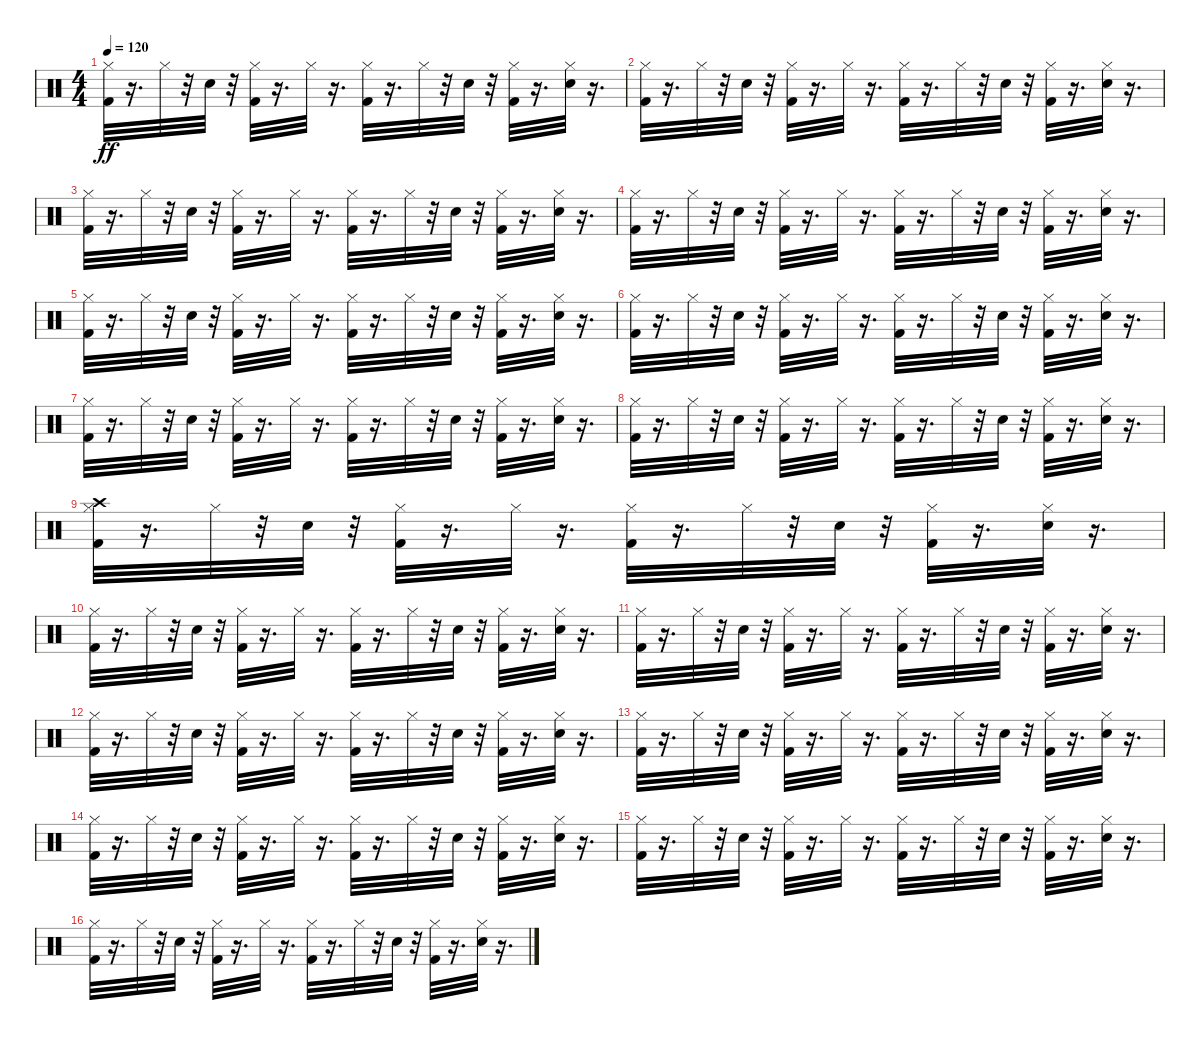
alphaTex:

\track "" {instrument percussion}
\staff {score}
\articulation defaults
\ts (4 4)
\tempo 120
\clef neutral
\ks c
("Kick (hit) 2" "Hi-Hat (closed)").32{dy ff} r.16{d} "Hi-Hat (closed)".32 r.32 "Snare (hit) 2".32 r.32 ("Kick (hit) 2" "Hi-Hat (closed)").32 r.16{d} "Hi-Hat (closed)".32 r.16{d} ("Kick (hit) 2" "Hi-Hat (closed)").32 r.16{d} "Hi-Hat (closed)".32 r.32 "Snare (hit) 2".32 r.32 ("Kick (hit) 2" "Hi-Hat (closed)").32 r.16{d} ("Snare (hit) 2" "Hi-Hat (closed)").32 r.16{d} |
("Kick (hit) 2" "Hi-Hat (closed)").32 r.16{d} "Hi-Hat (closed)".32 r.32 "Snare (hit) 2".32 r.32 ("Kick (hit) 2" "Hi-Hat (closed)").32 r.16{d} "Hi-Hat (closed)".32 r.16{d} ("Kick (hit) 2" "Hi-Hat (closed)").32 r.16{d} "Hi-Hat (closed)".32 r.32 "Snare (hit) 2".32 r.32 ("Kick (hit) 2" "Hi-Hat (closed)").32 r.16{d} ("Snare (hit) 2" "Hi-Hat (closed)").32 r.16{d} |
("Kick (hit) 2" "Hi-Hat (closed)").32 r.16{d} "Hi-Hat (closed)".32 r.32 "Snare (hit) 2".32 r.32 ("Kick (hit) 2" "Hi-Hat (closed)").32 r.16{d} "Hi-Hat (closed)".32 r.16{d} ("Kick (hit) 2" "Hi-Hat (closed)").32 r.16{d} "Hi-Hat (closed)".32 r.32 "Snare (hit) 2".32 r.32 ("Kick (hit) 2" "Hi-Hat (closed)").32 r.16{d} ("Snare (hit) 2" "Hi-Hat (closed)").32 r.16{d} |
("Kick (hit) 2" "Hi-Hat (closed)").32 r.16{d} "Hi-Hat (closed)".32 r.32 "Snare (hit) 2".32 r.32 ("Kick (hit) 2" "Hi-Hat (closed)").32 r.16{d} "Hi-Hat (closed)".32 r.16{d} ("Kick (hit) 2" "Hi-Hat (closed)").32 r.16{d} "Hi-Hat (closed)".32 r.32 "Snare (hit) 2".32 r.32 ("Kick (hit) 2" "Hi-Hat (closed)").32 r.16{d} ("Snare (hit) 2" "Hi-Hat (closed)").32 r.16{d} |
("Kick (hit) 2" "Hi-Hat (closed)").32 r.16{d} "Hi-Hat (closed)".32 r.32 "Snare (hit) 2".32 r.32 ("Kick (hit) 2" "Hi-Hat (closed)").32 r.16{d} "Hi-Hat (closed)".32 r.16{d} ("Kick (hit) 2" "Hi-Hat (closed)").32 r.16{d} "Hi-Hat (closed)".32 r.32 "Snare (hit) 2".32 r.32 ("Kick (hit) 2" "Hi-Hat (closed)").32 r.16{d} ("Snare (hit) 2" "Hi-Hat (closed)").32 r.16{d} |
("Kick (hit) 2" "Hi-Hat (closed)").32 r.16{d} "Hi-Hat (closed)".32 r.32 "Snare (hit) 2".32 r.32 ("Kick (hit) 2" "Hi-Hat (closed)").32 r.16{d} "Hi-Hat (closed)".32 r.16{d} ("Kick (hit) 2" "Hi-Hat (closed)").32 r.16{d} "Hi-Hat (closed)".32 r.32 "Snare (hit) 2".32 r.32 ("Kick (hit) 2" "Hi-Hat (closed)").32 r.16{d} ("Snare (hit) 2" "Hi-Hat (closed)").32 r.16{d} |
("Kick (hit) 2" "Hi-Hat (closed)").32 r.16{d} "Hi-Hat (closed)".32 r.32 "Snare (hit) 2".32 r.32 ("Kick (hit) 2" "Hi-Hat (closed)").32 r.16{d} "Hi-Hat (closed)".32 r.16{d} ("Kick (hit) 2" "Hi-Hat (closed)").32 r.16{d} "Hi-Hat (closed)".32 r.32 "Snare (hit) 2".32 r.32 ("Kick (hit) 2" "Hi-Hat (closed)").32 r.16{d} ("Snare (hit) 2" "Hi-Hat (closed)").32 r.16{d} |
("Kick (hit) 2" "Hi-Hat (closed)").32 r.16{d} "Hi-Hat (closed)".32 r.32 "Snare (hit) 2".32 r.32 ("Kick (hit) 2" "Hi-Hat (closed)").32 r.16{d} "Hi-Hat (closed)".32 r.16{d} ("Kick (hit) 2" "Hi-Hat (closed)").32 r.16{d} "Hi-Hat (closed)".32 r.32 "Snare (hit) 2".32 r.32 ("Kick (hit) 2" "Hi-Hat (closed)").32 r.16{d} ("Snare (hit) 2" "Hi-Hat (closed)").32 r.16{d} |
("Kick (hit) 2" "Hi-Hat (closed)" "Crash high (hit)").32 r.16{d} "Hi-Hat (closed)".32 r.32 "Snare (hit) 2".32 r.32 ("Kick (hit) 2" "Hi-Hat (closed)").32 r.16{d} "Hi-Hat (closed)".32 r.16{d} ("Kick (hit) 2" "Hi-Hat (closed)").32 r.16{d} "Hi-Hat (closed)".32 r.32 "Snare (hit) 2".32 r.32 ("Kick (hit) 2" "Hi-Hat (closed)").32 r.16{d} ("Snare (hit) 2" "Hi-Hat (closed)").32 r.16{d} |
("Kick (hit) 2" "Hi-Hat (closed)").32 r.16{d} "Hi-Hat (closed)".32 r.32 "Snare (hit) 2".32 r.32 ("Kick (hit) 2" "Hi-Hat (closed)").32 r.16{d} "Hi-Hat (closed)".32 r.16{d} ("Kick (hit) 2" "Hi-Hat (closed)").32 r.16{d} "Hi-Hat (closed)".32 r.32 "Snare (hit) 2".32 r.32 ("Kick (hit) 2" "Hi-Hat (closed)").32 r.16{d} ("Snare (hit) 2" "Hi-Hat (closed)").32 r.16{d} |
("Kick (hit) 2" "Hi-Hat (closed)").32 r.16{d} "Hi-Hat (closed)".32 r.32 "Snare (hit) 2".32 r.32 ("Kick (hit) 2" "Hi-Hat (closed)").32 r.16{d} "Hi-Hat (closed)".32 r.16{d} ("Kick (hit) 2" "Hi-Hat (closed)").32 r.16{d} "Hi-Hat (closed)".32 r.32 "Snare (hit) 2".32 r.32 ("Kick (hit) 2" "Hi-Hat (closed)").32 r.16{d} ("Snare (hit) 2" "Hi-Hat (closed)").32 r.16{d} |
("Kick (hit) 2" "Hi-Hat (closed)").32 r.16{d} "Hi-Hat (closed)".32 r.32 "Snare (hit) 2".32 r.32 ("Kick (hit) 2" "Hi-Hat (closed)").32 r.16{d} "Hi-Hat (closed)".32 r.16{d} ("Kick (hit) 2" "Hi-Hat (closed)").32 r.16{d} "Hi-Hat (closed)".32 r.32 "Snare (hit) 2".32 r.32 ("Kick (hit) 2" "Hi-Hat (closed)").32 r.16{d} ("Snare (hit) 2" "Hi-Hat (closed)").32 r.16{d} |
("Kick (hit) 2" "Hi-Hat (closed)").32 r.16{d} "Hi-Hat (closed)".32 r.32 "Snare (hit) 2".32 r.32 ("Kick (hit) 2" "Hi-Hat (closed)").32 r.16{d} "Hi-Hat (closed)".32 r.16{d} ("Kick (hit) 2" "Hi-Hat (closed)").32 r.16{d} "Hi-Hat (closed)".32 r.32 "Snare (hit) 2".32 r.32 ("Kick (hit) 2" "Hi-Hat (closed)").32 r.16{d} ("Snare (hit) 2" "Hi-Hat (closed)").32 r.16{d} |
("Kick (hit) 2" "Hi-Hat (closed)").32 r.16{d} "Hi-Hat (closed)".32 r.32 "Snare (hit) 2".32 r.32 ("Kick (hit) 2" "Hi-Hat (closed)").32 r.16{d} "Hi-Hat (closed)".32 r.16{d} ("Kick (hit) 2" "Hi-Hat (closed)").32 r.16{d} "Hi-Hat (closed)".32 r.32 "Snare (hit) 2".32 r.32 ("Kick (hit) 2" "Hi-Hat (closed)").32 r.16{d} ("Snare (hit) 2" "Hi-Hat (closed)").32 r.16{d} |
("Kick (hit) 2" "Hi-Hat (closed)").32 r.16{d} "Hi-Hat (closed)".32 r.32 "Snare (hit) 2".32 r.32 ("Kick (hit) 2" "Hi-Hat (closed)").32 r.16{d} "Hi-Hat (closed)".32 r.16{d} ("Kick (hit) 2" "Hi-Hat (closed)").32 r.16{d} "Hi-Hat (closed)".32 r.32 "Snare (hit) 2".32 r.32 ("Kick (hit) 2" "Hi-Hat (closed)").32 r.16{d} ("Snare (hit) 2" "Hi-Hat (closed)").32 r.16{d} |
("Kick (hit) 2" "Hi-Hat (closed)").32 r.16{d} "Hi-Hat (closed)".32 r.32 "Snare (hit) 2".32 r.32 ("Kick (hit) 2" "Hi-Hat (closed)").32 r.16{d} "Hi-Hat (closed)".32 r.16{d} ("Kick (hit) 2" "Hi-Hat (closed)").32 r.16{d} "Hi-Hat (closed)".32 r.32 "Snare (hit) 2".32 r.32 ("Kick (hit) 2" "Hi-Hat (closed)").32 r.16{d} ("Snare (hit) 2" "Hi-Hat (closed)").32 r.16{d}
